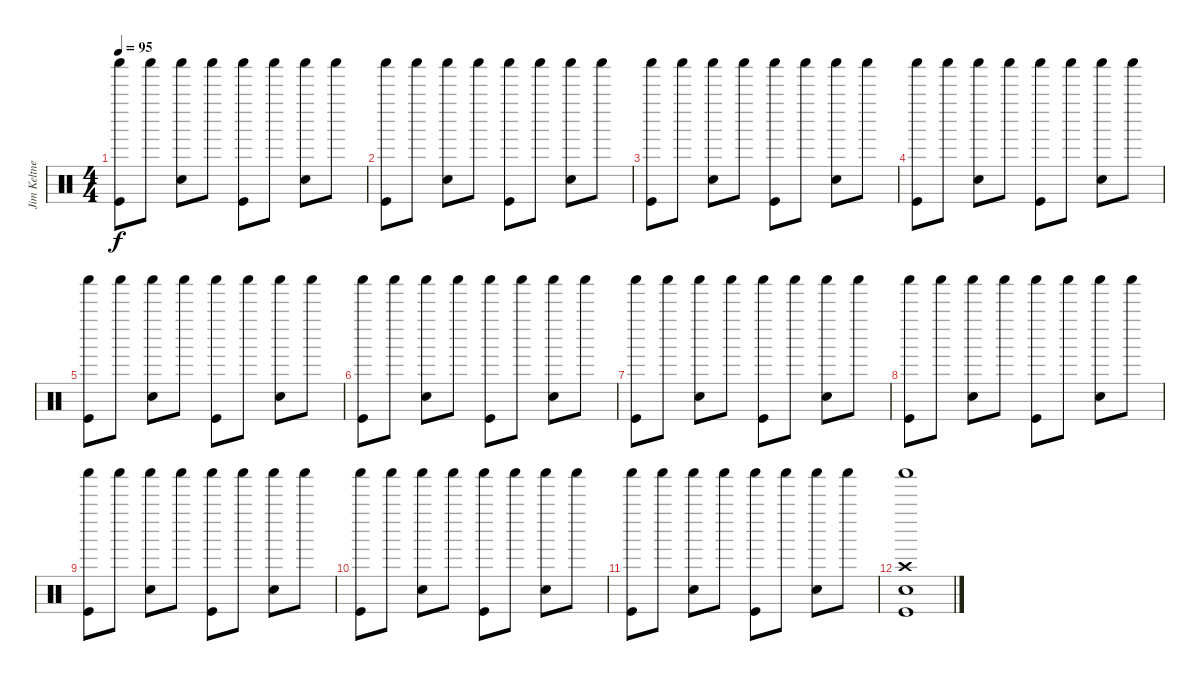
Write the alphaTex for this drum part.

\track ("Jim Keltner" "Jim Keltne") {instrument percussion}
\staff {score}
\articulation defaults
\ts (4 4)
\tempo 95
\clef neutral
\ks c
("Shaker (hit)" "Kick (hit)").8{dy f} "Shaker (hit)".8 ("Shaker (hit)" "Snare (hit) 2").8 "Shaker (hit)".8 ("Shaker (hit)" "Kick (hit)").8 "Shaker (hit)".8 ("Shaker (hit)" "Snare (hit) 2").8 "Shaker (hit)".8 |
("Shaker (hit)" "Kick (hit)").8 "Shaker (hit)".8 ("Shaker (hit)" "Snare (hit) 2").8 "Shaker (hit)".8 ("Shaker (hit)" "Kick (hit)").8 "Shaker (hit)".8 ("Shaker (hit)" "Snare (hit) 2").8 "Shaker (hit)".8 |
("Shaker (hit)" "Kick (hit)").8 "Shaker (hit)".8 ("Shaker (hit)" "Snare (hit) 2").8 "Shaker (hit)".8 ("Shaker (hit)" "Kick (hit)").8 "Shaker (hit)".8 ("Shaker (hit)" "Snare (hit) 2").8 "Shaker (hit)".8 |
("Shaker (hit)" "Kick (hit)").8 "Shaker (hit)".8 ("Shaker (hit)" "Snare (hit) 2").8 "Shaker (hit)".8 ("Shaker (hit)" "Kick (hit)").8 "Shaker (hit)".8 ("Shaker (hit)" "Snare (hit) 2").8 "Shaker (hit)".8 |
("Shaker (hit)" "Kick (hit)").8 "Shaker (hit)".8 ("Shaker (hit)" "Snare (hit) 2").8 "Shaker (hit)".8 ("Shaker (hit)" "Kick (hit)").8 "Shaker (hit)".8 ("Shaker (hit)" "Snare (hit) 2").8 "Shaker (hit)".8 |
("Shaker (hit)" "Kick (hit)").8 "Shaker (hit)".8 ("Shaker (hit)" "Snare (hit) 2").8 "Shaker (hit)".8 ("Shaker (hit)" "Kick (hit)").8 "Shaker (hit)".8 ("Shaker (hit)" "Snare (hit) 2").8 "Shaker (hit)".8 |
("Shaker (hit)" "Kick (hit)").8 "Shaker (hit)".8 ("Shaker (hit)" "Snare (hit) 2").8 "Shaker (hit)".8 ("Shaker (hit)" "Kick (hit)").8 "Shaker (hit)".8 ("Shaker (hit)" "Snare (hit) 2").8 "Shaker (hit)".8 |
("Shaker (hit)" "Kick (hit)").8 "Shaker (hit)".8 ("Shaker (hit)" "Snare (hit) 2").8 "Shaker (hit)".8 ("Shaker (hit)" "Kick (hit)").8 "Shaker (hit)".8 ("Shaker (hit)" "Snare (hit) 2").8 "Shaker (hit)".8 |
("Shaker (hit)" "Kick (hit)").8 "Shaker (hit)".8 ("Shaker (hit)" "Snare (hit) 2").8 "Shaker (hit)".8 ("Shaker (hit)" "Kick (hit)").8 "Shaker (hit)".8 ("Shaker (hit)" "Snare (hit) 2").8 "Shaker (hit)".8 |
("Shaker (hit)" "Kick (hit)").8 "Shaker (hit)".8 ("Shaker (hit)" "Snare (hit) 2").8 "Shaker (hit)".8 ("Shaker (hit)" "Kick (hit)").8 "Shaker (hit)".8 ("Shaker (hit)" "Snare (hit) 2").8 "Shaker (hit)".8 |
("Shaker (hit)" "Kick (hit)").8 "Shaker (hit)".8 ("Shaker (hit)" "Snare (hit) 2").8 "Shaker (hit)".8 ("Shaker (hit)" "Kick (hit)").8 "Shaker (hit)".8 ("Shaker (hit)" "Snare (hit) 2").8 "Shaker (hit)".8 |
("Shaker (hit)" "Crash high (hit)" "Snare (hit) 2" "Kick (hit)").1
